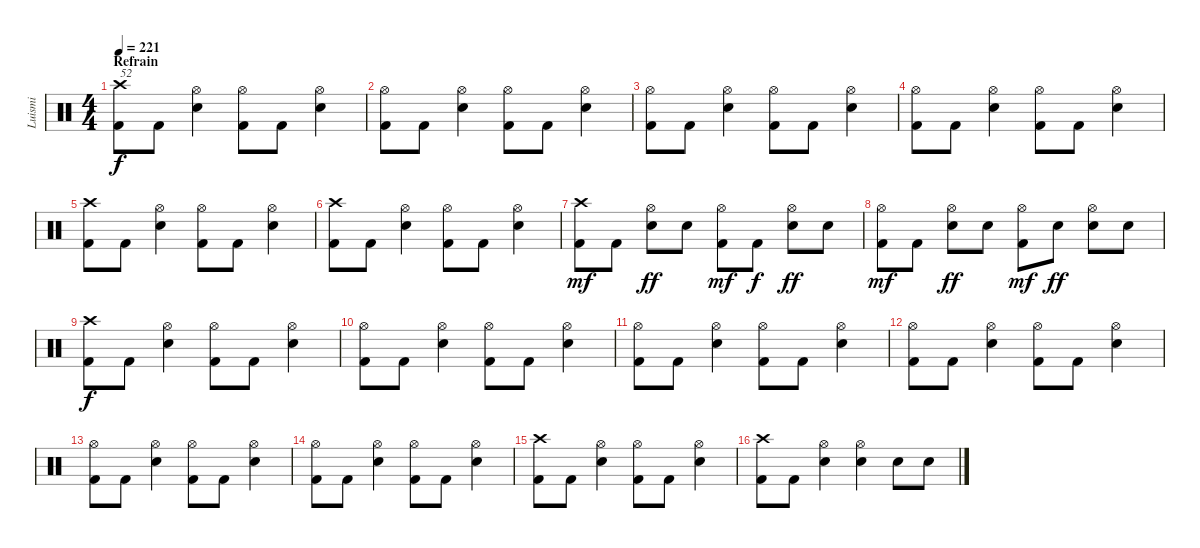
\track ("Luismi" "Luismi") {instrument percussion}
\staff {score}
\articulation defaults
\ts (4 4)
\section ("" "Refrain")
\tempo 221
\clef neutral
\ks c
("Crash high (hit)" "Kick (hit) 2").8{txt "52" dy f} "Kick (hit) 2".8 ("Hi-Hat (open)" "Snare (hit) 2").4 ("Hi-Hat (open)" "Kick (hit) 2").8 "Kick (hit) 2".8 ("Hi-Hat (open)" "Snare (hit) 2").4 |
("Hi-Hat (open)" "Kick (hit) 2").8 "Kick (hit) 2".8 ("Hi-Hat (open)" "Snare (hit) 2").4 ("Hi-Hat (open)" "Kick (hit) 2").8 "Kick (hit) 2".8 ("Hi-Hat (open)" "Snare (hit) 2").4 |
("Hi-Hat (open)" "Kick (hit) 2").8 "Kick (hit) 2".8 ("Hi-Hat (open)" "Snare (hit) 2").4 ("Hi-Hat (open)" "Kick (hit) 2").8 "Kick (hit) 2".8 ("Hi-Hat (open)" "Snare (hit) 2").4 |
("Hi-Hat (open)" "Kick (hit) 2").8 "Kick (hit) 2".8 ("Hi-Hat (open)" "Snare (hit) 2").4 ("Hi-Hat (open)" "Kick (hit) 2").8 "Kick (hit) 2".8 ("Hi-Hat (open)" "Snare (hit) 2").4 |
("Crash high (hit)" "Kick (hit) 2").8 "Kick (hit) 2".8 ("Hi-Hat (open)" "Snare (hit) 2").4 ("Hi-Hat (open)" "Kick (hit) 2").8 "Kick (hit) 2".8 ("Hi-Hat (open)" "Snare (hit) 2").4 |
("Crash high (hit)" "Kick (hit) 2").8 "Kick (hit) 2".8 ("Hi-Hat (open)" "Snare (hit) 2").4 ("Hi-Hat (open)" "Kick (hit) 2").8 "Kick (hit) 2".8 ("Hi-Hat (open)" "Snare (hit) 2").4 |
("Crash high (hit)" "Kick (hit) 2").8{dy mf} "Kick (hit) 2".8 ("Hi-Hat (open)" "Snare (hit) 2").8{dy ff} "Snare (hit) 2".8 ("Hi-Hat (open)" "Kick (hit) 2").8{dy mf} "Kick (hit) 2".8{dy f} ("Hi-Hat (open)" "Snare (hit) 2").8{dy ff} "Snare (hit) 2".8 |
("Hi-Hat (open)" "Kick (hit) 2").8{dy mf} "Kick (hit) 2".8 ("Hi-Hat (open)" "Snare (hit) 2").8{dy ff} "Snare (hit) 2".8 ("Hi-Hat (open)" "Kick (hit) 2").8{dy mf} "Snare (hit) 2".8{dy ff} ("Hi-Hat (open)" "Snare (hit) 2").8 "Snare (hit) 2".8 |
("Crash high (hit)" "Kick (hit) 2").8{dy f} "Kick (hit) 2".8 ("Hi-Hat (open)" "Snare (hit) 2").4 ("Hi-Hat (open)" "Kick (hit) 2").8 "Kick (hit) 2".8 ("Hi-Hat (open)" "Snare (hit) 2").4 |
("Hi-Hat (open)" "Kick (hit) 2").8 "Kick (hit) 2".8 ("Hi-Hat (open)" "Snare (hit) 2").4 ("Hi-Hat (open)" "Kick (hit) 2").8 "Kick (hit) 2".8 ("Hi-Hat (open)" "Snare (hit) 2").4 |
("Hi-Hat (open)" "Kick (hit) 2").8 "Kick (hit) 2".8 ("Hi-Hat (open)" "Snare (hit) 2").4 ("Hi-Hat (open)" "Kick (hit) 2").8 "Kick (hit) 2".8 ("Hi-Hat (open)" "Snare (hit) 2").4 |
("Hi-Hat (open)" "Kick (hit) 2").8 "Kick (hit) 2".8 ("Hi-Hat (open)" "Snare (hit) 2").4 ("Hi-Hat (open)" "Kick (hit) 2").8 "Kick (hit) 2".8 ("Hi-Hat (open)" "Snare (hit) 2").4 |
("Hi-Hat (open)" "Kick (hit) 2").8 "Kick (hit) 2".8 ("Hi-Hat (open)" "Snare (hit) 2").4 ("Hi-Hat (open)" "Kick (hit) 2").8 "Kick (hit) 2".8 ("Hi-Hat (open)" "Snare (hit) 2").4 |
("Hi-Hat (open)" "Kick (hit) 2").8 "Kick (hit) 2".8 ("Hi-Hat (open)" "Snare (hit) 2").4 ("Hi-Hat (open)" "Kick (hit) 2").8 "Kick (hit) 2".8 ("Hi-Hat (open)" "Snare (hit) 2").4 |
("Crash high (hit)" "Kick (hit) 2").8 "Kick (hit) 2".8 ("Hi-Hat (open)" "Snare (hit) 2").4 ("Hi-Hat (open)" "Kick (hit) 2").8 "Kick (hit) 2".8 ("Hi-Hat (open)" "Snare (hit) 2").4 |
("Crash high (hit)" "Kick (hit) 2").8 "Kick (hit) 2".8 ("Hi-Hat (open)" "Snare (hit) 2").4 ("Hi-Hat (open)" "Snare (hit) 2").4 "Snare (hit) 2".8 "Snare (hit) 2".8
